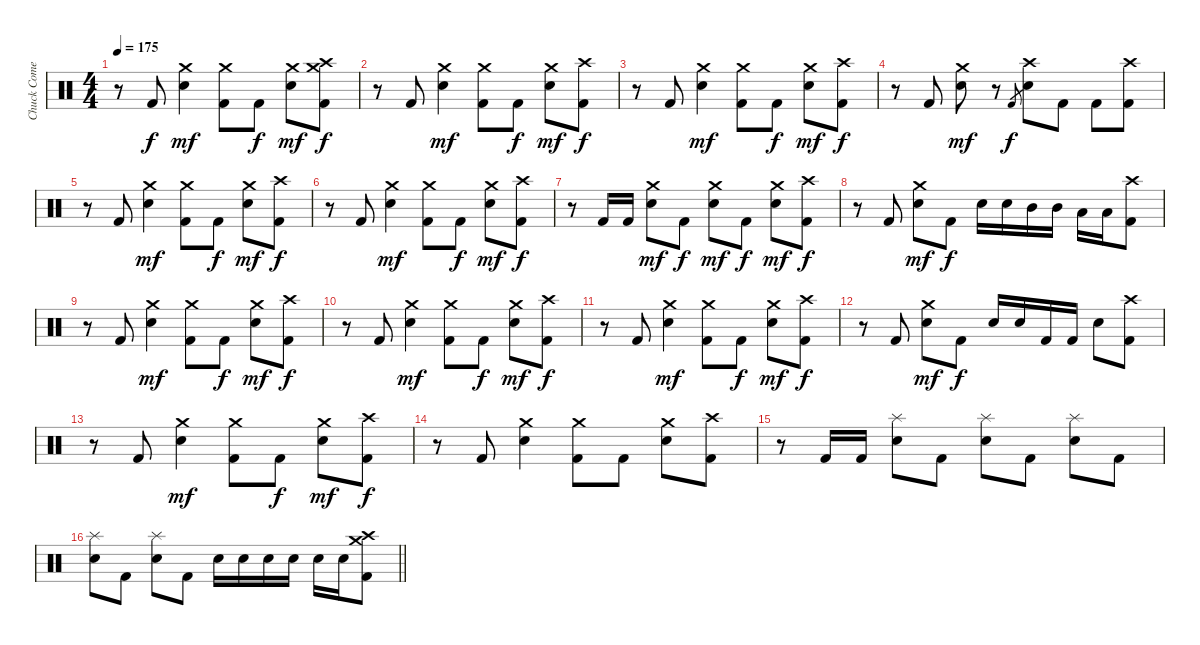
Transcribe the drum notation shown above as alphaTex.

\track ("Chuck Comeau" "Chuck Come") {instrument percussion}
\staff {score}
\articulation defaults
\ts (4 4)
\tempo 175
\clef neutral
\ks c
r.8{dy f} "Kick (hit) 2".8 ("Crash medium (hit)" "Electric Snare (hit)").4{dy mf} ("Crash medium (hit)" "Kick (hit) 2").8 "Kick (hit) 2".8{dy f} ("Crash medium (hit)" "Electric Snare (hit)").8{dy mf} ("Crash high (hit)" "Crash medium (hit)" "Kick (hit) 2").8{dy f} |
r.8 "Kick (hit) 2".8 ("Crash medium (hit)" "Electric Snare (hit)").4{dy mf} ("Crash medium (hit)" "Kick (hit) 2").8 "Kick (hit) 2".8{dy f} ("Crash medium (hit)" "Electric Snare (hit)").8{dy mf} ("Crash high (hit)" "Kick (hit) 2").8{dy f} |
r.8 "Kick (hit) 2".8 ("Crash medium (hit)" "Electric Snare (hit)").4{dy mf} ("Crash medium (hit)" "Kick (hit) 2").8 "Kick (hit) 2".8{dy f} ("Crash medium (hit)" "Electric Snare (hit)").8{dy mf} ("Crash high (hit)" "Kick (hit) 2").8{dy f} |
r.8 "Kick (hit) 2".8 ("Crash medium (hit)" "Electric Snare (hit)").8{dy mf} r.8 "Kick (hit) 2".8{gr dy f} ("Crash high (hit)" "Electric Snare (hit)").8 "Kick (hit) 2".8 "Kick (hit) 2".8 ("Crash high (hit)" "Kick (hit) 2").8 |
r.8 "Kick (hit) 2".8 ("Crash medium (hit)" "Electric Snare (hit)").4{dy mf} ("Crash medium (hit)" "Kick (hit) 2").8 "Kick (hit) 2".8{dy f} ("Crash medium (hit)" "Electric Snare (hit)").8{dy mf} ("Crash high (hit)" "Kick (hit) 2").8{dy f} |
r.8 "Kick (hit) 2".8 ("Crash medium (hit)" "Electric Snare (hit)").4{dy mf} ("Crash medium (hit)" "Kick (hit) 2").8 "Kick (hit) 2".8{dy f} ("Crash medium (hit)" "Electric Snare (hit)").8{dy mf} ("Crash high (hit)" "Kick (hit) 2").8{dy f} |
r.8 "Kick (hit) 2".16 "Kick (hit) 2".16 ("Crash medium (hit)" "Electric Snare (hit)").8{dy mf} "Kick (hit) 2".8{dy f} ("Crash medium (hit)" "Electric Snare (hit)").8{dy mf} "Kick (hit) 2".8{dy f} ("Crash medium (hit)" "Electric Snare (hit)").8{dy mf} ("Crash high (hit)" "Kick (hit) 2").8{dy f} |
r.8 "Kick (hit) 2".8 ("Crash medium (hit)" "Electric Snare (hit)").8{dy mf} "Kick (hit) 2".8{dy f} "Electric Snare (hit)".16 "Electric Snare (hit)".16 "Mid Tom (hit)".16 "Mid Tom (hit)".16 "Low Tom (hit)".16 "Low Tom (hit)".16 ("Crash high (hit)" "Kick (hit) 2").8 |
r.8 "Kick (hit) 2".8 ("Crash medium (hit)" "Electric Snare (hit)").4{dy mf} ("Crash medium (hit)" "Kick (hit) 2").8 "Kick (hit) 2".8{dy f} ("Crash medium (hit)" "Electric Snare (hit)").8{dy mf} ("Crash high (hit)" "Kick (hit) 2").8{dy f} |
r.8 "Kick (hit) 2".8 ("Crash medium (hit)" "Electric Snare (hit)").4{dy mf} ("Crash medium (hit)" "Kick (hit) 2").8 "Kick (hit) 2".8{dy f} ("Crash medium (hit)" "Electric Snare (hit)").8{dy mf} ("Crash high (hit)" "Kick (hit) 2").8{dy f} |
r.8 "Kick (hit) 2".8 ("Crash medium (hit)" "Electric Snare (hit)").4{dy mf} ("Crash medium (hit)" "Kick (hit) 2").8 "Kick (hit) 2".8{dy f} ("Crash medium (hit)" "Electric Snare (hit)").8{dy mf} ("Crash high (hit)" "Kick (hit) 2").8{dy f} |
r.8 "Kick (hit) 2".8 ("Crash medium (hit)" "Electric Snare (hit)").8{dy mf} "Kick (hit) 2".8{dy f} "Electric Snare (hit)".16 "Electric Snare (hit)".16 "Kick (hit) 2".16 "Kick (hit) 2".16 "Electric Snare (hit)".8 ("Crash high (hit)" "Kick (hit) 2").8 |
r.8 "Kick (hit) 2".8 ("Crash medium (hit)" "Electric Snare (hit)").4{dy mf} ("Crash medium (hit)" "Kick (hit) 2").8 "Kick (hit) 2".8{dy f} ("Crash medium (hit)" "Electric Snare (hit)").8{dy mf} ("Crash high (hit)" "Kick (hit) 2").8{dy f} |
r.8 "Kick (hit) 2".8 ("Crash medium (hit)" "Electric Snare (hit)").4 ("Crash medium (hit)" "Kick (hit) 2").8 "Kick (hit) 2".8 ("Crash medium (hit)" "Electric Snare (hit)").8 ("Crash high (hit)" "Kick (hit) 2").8 |
r.8 "Kick (hit) 2".16 "Kick (hit) 2".16 ("Splash (hit)" "Electric Snare (hit)").8 "Kick (hit) 2".8 ("Splash (hit)" "Electric Snare (hit)").8 "Kick (hit) 2".8 ("Splash (hit)" "Electric Snare (hit)").8 "Kick (hit) 2".8 |
\barLineRight lightlight
("Splash (hit)" "Electric Snare (hit)").8 "Kick (hit) 2".8 ("Splash (hit)" "Electric Snare (hit)").8 "Kick (hit) 2".8 "Electric Snare (hit)".16 "Electric Snare (hit)".16 "Electric Snare (hit)".16 "Electric Snare (hit)".16 "Electric Snare (hit)".16 "Electric Snare (hit)".16 ("Crash high (hit)" "Crash medium (hit)" "Kick (hit) 2").8
